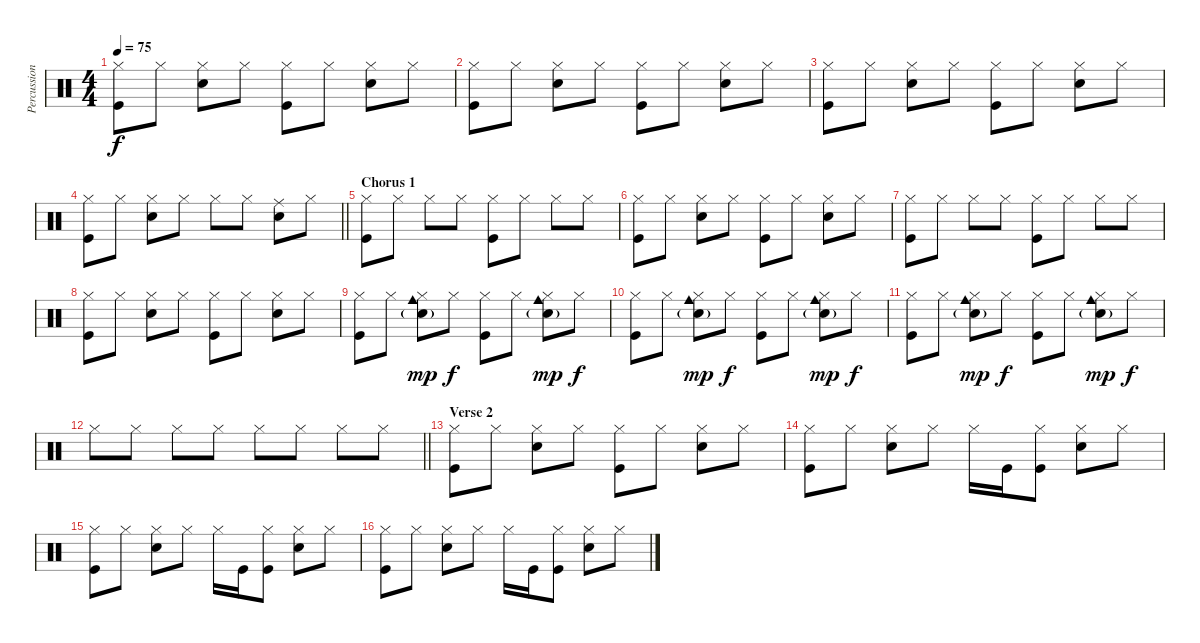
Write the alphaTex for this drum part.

\track ("Percussion" "Percussion") {instrument percussion}
\staff {score}
\articulation defaults
\ts (4 4)
\tempo 75
\clef neutral
\ks c
("Hi-Hat (closed)" "Kick (hit)").8{dy f} "Hi-Hat (closed)".8 ("Hi-Hat (closed)" "Snare (hit) 2").8 "Hi-Hat (closed)".8 ("Hi-Hat (closed)" "Kick (hit)").8 "Hi-Hat (closed)".8 ("Hi-Hat (closed)" "Snare (hit) 2").8 "Hi-Hat (closed)".8 |
("Hi-Hat (closed)" "Kick (hit)").8 "Hi-Hat (closed)".8 ("Hi-Hat (closed)" "Snare (hit) 2").8 "Hi-Hat (closed)".8 ("Hi-Hat (closed)" "Kick (hit)").8 "Hi-Hat (closed)".8 ("Hi-Hat (closed)" "Snare (hit) 2").8 "Hi-Hat (closed)".8 |
("Hi-Hat (closed)" "Kick (hit)").8 "Hi-Hat (closed)".8 ("Hi-Hat (closed)" "Snare (hit) 2").8 "Hi-Hat (closed)".8 ("Hi-Hat (closed)" "Kick (hit)").8 "Hi-Hat (closed)".8 ("Hi-Hat (closed)" "Snare (hit) 2").8 "Hi-Hat (closed)".8 |
\barLineRight lightlight
("Hi-Hat (closed)" "Kick (hit)").8 "Hi-Hat (closed)".8 ("Hi-Hat (closed)" "Snare (hit) 2").8 "Hi-Hat (closed)".8 "Hi-Hat (closed)".8 "Hi-Hat (closed)".8 ("Ride (middle)" "Snare (hit) 2").8 "Hi-Hat (closed)".8 |
\section ("" "Chorus 1")
("Hi-Hat (closed)" "Kick (hit)").8 "Hi-Hat (closed)".8 "Hi-Hat (closed)".8 "Hi-Hat (closed)".8 ("Hi-Hat (closed)" "Kick (hit)").8 "Hi-Hat (closed)".8 "Hi-Hat (closed)".8 "Hi-Hat (closed)".8 |
("Hi-Hat (closed)" "Kick (hit)").8 "Hi-Hat (closed)".8 ("Hi-Hat (closed)" "Snare (hit) 2").8 "Hi-Hat (closed)".8 ("Hi-Hat (closed)" "Kick (hit)").8 "Hi-Hat (closed)".8 ("Hi-Hat (closed)" "Snare (hit) 2").8 "Hi-Hat (closed)".8 |
("Hi-Hat (closed)" "Kick (hit)").8 "Hi-Hat (closed)".8 "Hi-Hat (closed)".8 "Hi-Hat (closed)".8 ("Hi-Hat (closed)" "Kick (hit)").8 "Hi-Hat (closed)".8 "Hi-Hat (closed)".8 "Hi-Hat (closed)".8 |
("Hi-Hat (closed)" "Kick (hit)").8 "Hi-Hat (closed)".8 ("Hi-Hat (closed)" "Snare (hit) 2").8 "Hi-Hat (closed)".8 ("Hi-Hat (closed)" "Kick (hit)").8 "Hi-Hat (closed)".8 ("Hi-Hat (closed)" "Snare (hit) 2").8 "Hi-Hat (closed)".8 |
("Hi-Hat (closed)" "Kick (hit)").8 "Hi-Hat (closed)".8 ("Hi-Hat (closed)" "Snare (hit) 2"{g} "Cowbell medium (hit)").8{dy mp} "Hi-Hat (closed)".8{dy f} ("Hi-Hat (closed)" "Kick (hit)").8 "Hi-Hat (closed)".8 ("Hi-Hat (closed)" "Snare (hit) 2"{g} "Cowbell medium (hit)").8{dy mp} "Hi-Hat (closed)".8{dy f} |
("Hi-Hat (closed)" "Kick (hit)").8 "Hi-Hat (closed)".8 ("Hi-Hat (closed)" "Snare (hit) 2"{g} "Cowbell medium (hit)").8{dy mp} "Hi-Hat (closed)".8{dy f} ("Hi-Hat (closed)" "Kick (hit)").8 "Hi-Hat (closed)".8 ("Hi-Hat (closed)" "Snare (hit) 2"{g} "Cowbell medium (hit)").8{dy mp} "Hi-Hat (closed)".8{dy f} |
("Hi-Hat (closed)" "Kick (hit)").8 "Hi-Hat (closed)".8 ("Hi-Hat (closed)" "Snare (hit) 2"{g} "Cowbell medium (hit)").8{dy mp} "Hi-Hat (closed)".8{dy f} ("Hi-Hat (closed)" "Kick (hit)").8 "Hi-Hat (closed)".8 ("Hi-Hat (closed)" "Snare (hit) 2"{g} "Cowbell medium (hit)").8{dy mp} "Hi-Hat (closed)".8{dy f} |
\barLineRight lightlight "Hi-Hat (closed)".8 "Hi-Hat (closed)".8 "Hi-Hat (closed)".8 "Hi-Hat (closed)".8 "Hi-Hat (closed)".8 "Hi-Hat (closed)".8 "Hi-Hat (closed)".8 "Hi-Hat (closed)".8
|
\section ("" "Verse 2")
("Hi-Hat (closed)" "Kick (hit)").8 "Hi-Hat (closed)".8 ("Hi-Hat (closed)" "Snare (hit) 2").8 "Hi-Hat (closed)".8 ("Hi-Hat (closed)" "Kick (hit)").8 "Hi-Hat (closed)".8 ("Hi-Hat (closed)" "Snare (hit) 2").8 "Hi-Hat (closed)".8 |
("Hi-Hat (closed)" "Kick (hit)").8 "Hi-Hat (closed)".8 ("Hi-Hat (closed)" "Snare (hit) 2").8 "Hi-Hat (closed)".8 "Hi-Hat (closed)".16 "Kick (hit)".16 ("Hi-Hat (closed)" "Kick (hit)").8 ("Hi-Hat (closed)" "Snare (hit) 2").8 "Hi-Hat (closed)".8 |
("Hi-Hat (closed)" "Kick (hit)").8 "Hi-Hat (closed)".8 ("Hi-Hat (closed)" "Snare (hit) 2").8 "Hi-Hat (closed)".8 "Hi-Hat (closed)".16 "Kick (hit)".16 ("Hi-Hat (closed)" "Kick (hit)").8 ("Hi-Hat (closed)" "Snare (hit) 2").8 "Hi-Hat (closed)".8 |
("Hi-Hat (closed)" "Kick (hit)").8 "Hi-Hat (closed)".8 ("Hi-Hat (closed)" "Snare (hit) 2").8 "Hi-Hat (closed)".8 "Hi-Hat (closed)".16 "Kick (hit)".16 ("Hi-Hat (closed)" "Kick (hit)").8 ("Hi-Hat (closed)" "Snare (hit) 2").8 "Hi-Hat (closed)".8
